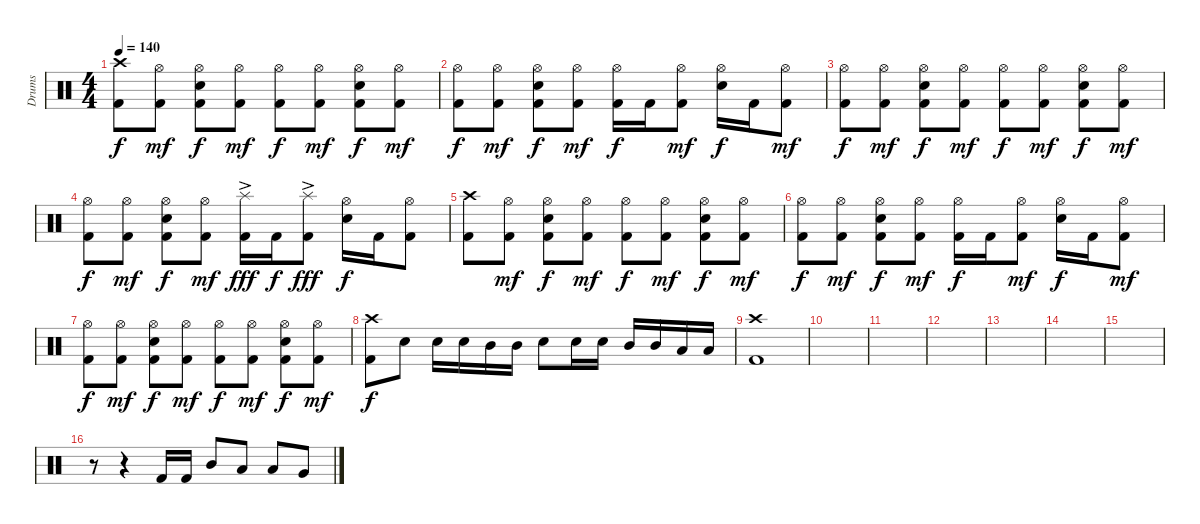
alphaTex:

\track ("Drums" "Drums") {instrument percussion}
\staff {score}
\articulation defaults
\ts (4 4)
\tempo 140
\clef neutral
\ks c
("Crash high (hit)" "Kick (hit) 2").8{dy f} ("Hi-Hat (open)" "Kick (hit) 2").8{dy mf} ("Hi-Hat (open)" "Electric Snare (hit)" "Kick (hit) 2").8{dy f} ("Hi-Hat (open)" "Kick (hit) 2").8{dy mf} ("Hi-Hat (open)" "Kick (hit) 2").8{dy f} ("Hi-Hat (open)" "Kick (hit) 2").8{dy mf} ("Hi-Hat (open)" "Electric Snare (hit)" "Kick (hit) 2").8{dy f} ("Hi-Hat (open)" "Kick (hit) 2").8{dy mf} |
("Hi-Hat (open)" "Kick (hit) 2").8{dy f} ("Hi-Hat (open)" "Kick (hit) 2").8{dy mf} ("Hi-Hat (open)" "Electric Snare (hit)" "Kick (hit) 2").8{dy f} ("Hi-Hat (open)" "Kick (hit) 2").8{dy mf} ("Hi-Hat (open)" "Kick (hit) 2").16{dy f} "Kick (hit) 2".16 ("Hi-Hat (open)" "Kick (hit) 2").8{dy mf} ("Hi-Hat (open)" "Electric Snare (hit)").16{dy f} "Kick (hit) 2".16 ("Hi-Hat (open)" "Kick (hit) 2").8{dy mf} |
("Hi-Hat (open)" "Kick (hit) 2").8{dy f} ("Hi-Hat (open)" "Kick (hit) 2").8{dy mf} ("Hi-Hat (open)" "Electric Snare (hit)" "Kick (hit) 2").8{dy f} ("Hi-Hat (open)" "Kick (hit) 2").8{dy mf} ("Hi-Hat (open)" "Kick (hit) 2").8{dy f} ("Hi-Hat (open)" "Kick (hit) 2").8{dy mf} ("Hi-Hat (open)" "Electric Snare (hit)" "Kick (hit) 2").8{dy f} ("Hi-Hat (open)" "Kick (hit) 2").8{dy mf} |
("Hi-Hat (open)" "Kick (hit) 2").8{dy f} ("Hi-Hat (open)" "Kick (hit) 2").8{dy mf} ("Hi-Hat (open)" "Electric Snare (hit)" "Kick (hit) 2").8{dy f} ("Hi-Hat (open)" "Kick (hit) 2").8{dy mf} ("Splash (hit)"{ac} "Kick (hit) 2").16{dy fff} "Kick (hit) 2".16{dy f} ("Splash (hit)"{ac} "Kick (hit) 2").8{dy fff} ("Hi-Hat (open)" "Electric Snare (hit)").16{dy f} "Kick (hit) 2".16 ("Hi-Hat (open)" "Kick (hit) 2").8 |
("Crash high (hit)" "Kick (hit) 2").8 ("Hi-Hat (open)" "Kick (hit) 2").8{dy mf} ("Hi-Hat (open)" "Electric Snare (hit)" "Kick (hit) 2").8{dy f} ("Hi-Hat (open)" "Kick (hit) 2").8{dy mf} ("Hi-Hat (open)" "Kick (hit) 2").8{dy f} ("Hi-Hat (open)" "Kick (hit) 2").8{dy mf} ("Hi-Hat (open)" "Electric Snare (hit)" "Kick (hit) 2").8{dy f} ("Hi-Hat (open)" "Kick (hit) 2").8{dy mf} |
("Hi-Hat (open)" "Kick (hit) 2").8{dy f} ("Hi-Hat (open)" "Kick (hit) 2").8{dy mf} ("Hi-Hat (open)" "Electric Snare (hit)" "Kick (hit) 2").8{dy f} ("Hi-Hat (open)" "Kick (hit) 2").8{dy mf} ("Hi-Hat (open)" "Kick (hit) 2").16{dy f} "Kick (hit) 2".16 ("Hi-Hat (open)" "Kick (hit) 2").8{dy mf} ("Hi-Hat (open)" "Electric Snare (hit)").16{dy f} "Kick (hit) 2".16 ("Hi-Hat (open)" "Kick (hit) 2").8{dy mf} |
("Hi-Hat (open)" "Kick (hit) 2").8{dy f} ("Hi-Hat (open)" "Kick (hit) 2").8{dy mf} ("Hi-Hat (open)" "Electric Snare (hit)" "Kick (hit) 2").8{dy f} ("Hi-Hat (open)" "Kick (hit) 2").8{dy mf} ("Hi-Hat (open)" "Kick (hit) 2").8{dy f} ("Hi-Hat (open)" "Kick (hit) 2").8{dy mf} ("Hi-Hat (open)" "Electric Snare (hit)" "Kick (hit) 2").8{dy f} ("Hi-Hat (open)" "Kick (hit) 2").8{dy mf} |
("Crash high (hit)" "Kick (hit) 2").8{dy f} "Electric Snare (hit)".8 "Electric Snare (hit)".16 "Electric Snare (hit)".16 "Mid Tom (hit)".16 "Mid Tom (hit)".16 "Electric Snare (hit)".8 "Electric Snare (hit)".16 "Electric Snare (hit)".16 "Mid Tom (hit)".16 "Mid Tom (hit)".16 "Low Tom (hit)".16 "Low Tom (hit)".16 |
("Crash high (hit)" "Kick (hit) 2").1 |
|
|
|
|
|
|
r.8 r.4 "Kick (hit) 2".16 "Kick (hit) 2".16 "Mid Tom (hit)".8 "Low Tom (hit)".8 "Low Tom (hit)".8 "Very Low Tom (hit)".8
